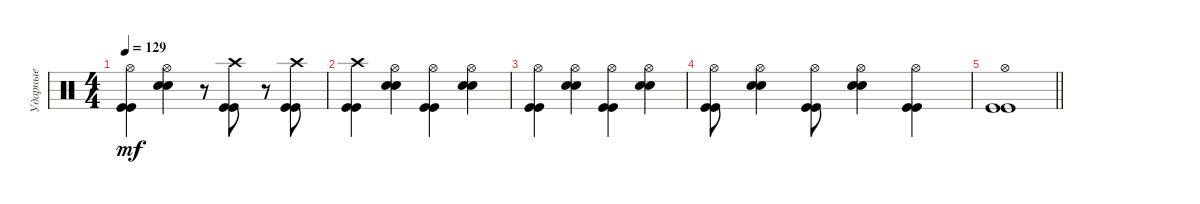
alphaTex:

\track ("Ударные" "Ударные") {instrument percussion}
\staff {score}
\articulation defaults
\ts (4 4)
\tempo 129
\clef neutral
\ks c
("Hi-Hat (open)" "Kick (hit)" "Kick (hit)").4{dy mf} ("Hi-Hat (open)" "Snare (hit) 2" "Snare (hit) 2").4 r.8 ("Crash high (hit)" "Kick (hit)" "Kick (hit)").8 r.8 ("Crash high (hit)" "Kick (hit)" "Kick (hit)").8 |
("Crash high (hit)" "Kick (hit)" "Kick (hit)").4 ("Hi-Hat (open)" "Snare (hit) 2" "Snare (hit) 2").4 ("Hi-Hat (open)" "Kick (hit)" "Kick (hit)").4 ("Hi-Hat (open)" "Snare (hit) 2" "Snare (hit) 2").4 |
("Hi-Hat (open)" "Kick (hit)" "Kick (hit)").4 ("Hi-Hat (open)" "Snare (hit) 2" "Snare (hit) 2").4 ("Hi-Hat (open)" "Kick (hit)" "Kick (hit)").4 ("Hi-Hat (open)" "Snare (hit) 2" "Snare (hit) 2").4 |
("Hi-Hat (open)" "Kick (hit)" "Kick (hit)").8 ("Hi-Hat (open)" "Snare (hit) 2" "Snare (hit) 2").4 ("Hi-Hat (open)" "Kick (hit)" "Kick (hit)").8 ("Hi-Hat (open)" "Snare (hit) 2" "Snare (hit) 2").4 ("Hi-Hat (open)" "Kick (hit)" "Kick (hit)").4 |
\barLineRight lightlight
("Hi-Hat (open)" "Kick (hit)" "Kick (hit)").1
